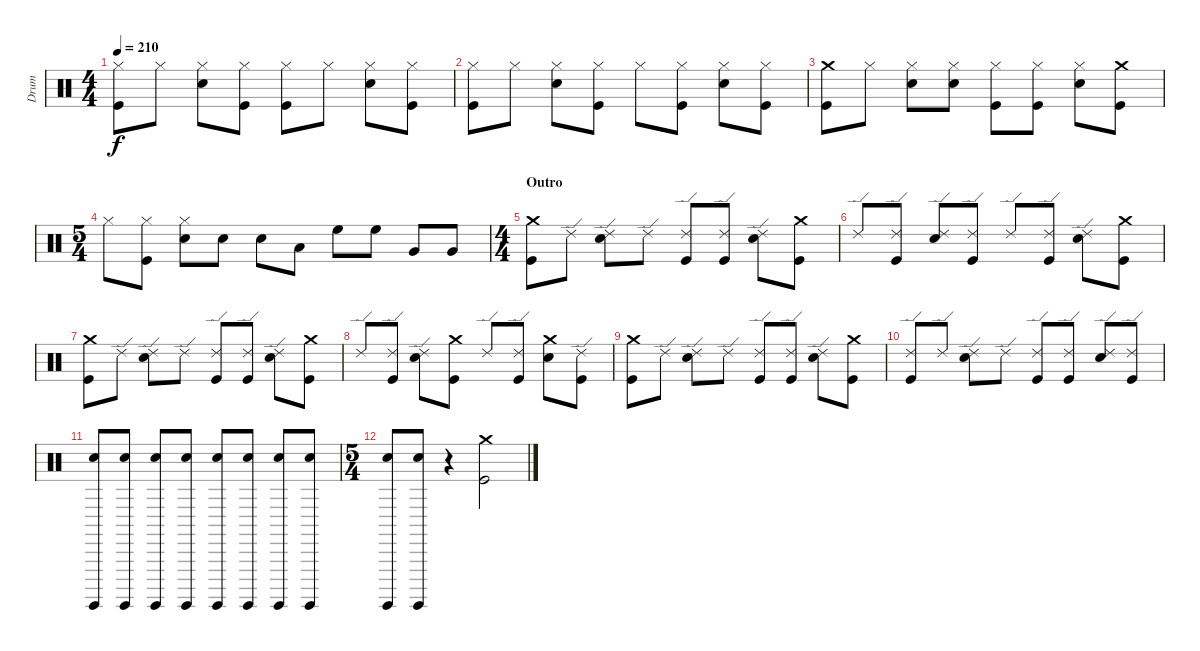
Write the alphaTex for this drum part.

\track ("Drum" "Drum") {instrument percussion}
\staff {score}
\articulation defaults
\ts (4 4)
\tempo 210
\clef neutral
\ks c
("Hi-Hat (closed)" "Kick (hit)").8{dy f} "Hi-Hat (closed)".8 ("Hi-Hat (closed)" "Snare (hit) 2").8 ("Hi-Hat (closed)" "Kick (hit)").8 ("Hi-Hat (closed)" "Kick (hit)").8 "Hi-Hat (closed)".8 ("Hi-Hat (closed)" "Snare (hit) 2").8 ("Hi-Hat (closed)" "Kick (hit)").8 |
("Hi-Hat (closed)" "Kick (hit)").8 "Hi-Hat (closed)".8 ("Hi-Hat (closed)" "Snare (hit) 2").8 ("Hi-Hat (closed)" "Kick (hit)").8 "Hi-Hat (closed)".8 ("Hi-Hat (closed)" "Kick (hit)").8 ("Hi-Hat (closed)" "Snare (hit) 2").8 ("Hi-Hat (closed)" "Kick (hit)").8 |
("Crash medium (hit)" "Kick (hit)").8 "Hi-Hat (closed)".8 ("Hi-Hat (closed)" "Snare (hit) 2").8 ("Hi-Hat (closed)" "Snare (hit) 2").8 ("Hi-Hat (closed)" "Kick (hit)").8 ("Hi-Hat (closed)" "Kick (hit)").8 ("Hi-Hat (closed)" "Snare (hit) 2").8 ("Crash medium (hit)" "Kick (hit)").8 |
\ts (5 4)
"Hi-Hat (closed)".8 ("Hi-Hat (closed)" "Kick (hit)").8 ("Hi-Hat (closed)" "Snare (hit) 2").8 "Snare (hit) 2".8 "Snare (hit) 2".8 "Low Tom (hit)".8 "High Floor Tom (hit)".8 "High Floor Tom (hit)".8 "Very Low Tom (hit)".8 "Very Low Tom (hit)".8 |
\ts (4 4)
\section ("" "Outro")
("Crash medium (hit)" "Kick (hit)").8 "Ride (edge) 2".8 ("Ride (edge) 2" "Snare (hit) 2").8 "Ride (edge) 2".8 ("Ride (edge) 2" "Kick (hit)").8 ("Ride (edge) 2" "Kick (hit)").8 ("Ride (edge) 2" "Snare (hit) 2").8 ("Crash medium (hit)" "Kick (hit)").8 |
"Ride (edge) 2".8 ("Ride (edge) 2" "Kick (hit)").8 ("Ride (edge) 2" "Snare (hit) 2").8 ("Ride (edge) 2" "Kick (hit)").8 "Ride (edge) 2".8 ("Ride (edge) 2" "Kick (hit)").8 ("Ride (edge) 2" "Snare (hit) 2").8 ("Crash medium (hit)" "Kick (hit)").8 |
("Crash medium (hit)" "Kick (hit)").8 "Ride (edge) 2".8 ("Ride (edge) 2" "Snare (hit) 2").8 "Ride (edge) 2".8 ("Ride (edge) 2" "Kick (hit)").8 ("Ride (edge) 2" "Kick (hit)").8 ("Ride (edge) 2" "Snare (hit) 2").8 ("Crash medium (hit)" "Kick (hit)").8 |
"Ride (edge) 2".8 ("Ride (edge) 2" "Kick (hit)").8 ("Ride (edge) 2" "Snare (hit) 2").8 ("Crash medium (hit)" "Kick (hit)").8 "Ride (edge) 2".8 ("Ride (edge) 2" "Kick (hit)").8 ("Crash medium (hit)" "Snare (hit) 2").8 ("Ride (edge) 2" "Kick (hit)").8 |
("Crash medium (hit)" "Kick (hit)").8 "Ride (edge) 2".8 ("Ride (edge) 2" "Snare (hit) 2").8 "Ride (edge) 2".8 ("Ride (edge) 2" "Kick (hit)").8 ("Ride (edge) 2" "Kick (hit)").8 ("Ride (edge) 2" "Snare (hit) 2").8 ("Crash medium (hit)" "Kick (hit)").8 |
("Ride (edge) 2" "Kick (hit)").8 "Ride (edge) 2".8 ("Ride (edge) 2" "Snare (hit) 2").8 "Ride (edge) 2".8 ("Ride (edge) 2" "Kick (hit)").8 ("Ride (edge) 2" "Kick (hit)").8 ("Ride (edge) 2" "Snare (hit) 2").8 ("Ride (edge) 2" "Kick (hit)").8 |
("Snare (hit) 2" "Surdo (hit)").8 ("Snare (hit) 2" "Surdo (hit)").8 ("Snare (hit) 2" "Surdo (hit)").8 ("Snare (hit) 2" "Surdo (hit)").8 ("Snare (hit) 2" "Surdo (hit)").8 ("Snare (hit) 2" "Surdo (hit)").8 ("Snare (hit) 2" "Surdo (hit)").8 ("Snare (hit) 2" "Surdo (hit)").8 |
\ts (5 4)
("Snare (hit) 2" "Surdo (hit)").8 ("Snare (hit) 2" "Surdo (hit)").8 r.4 ("Crash medium (hit)" "Kick (hit)").2
